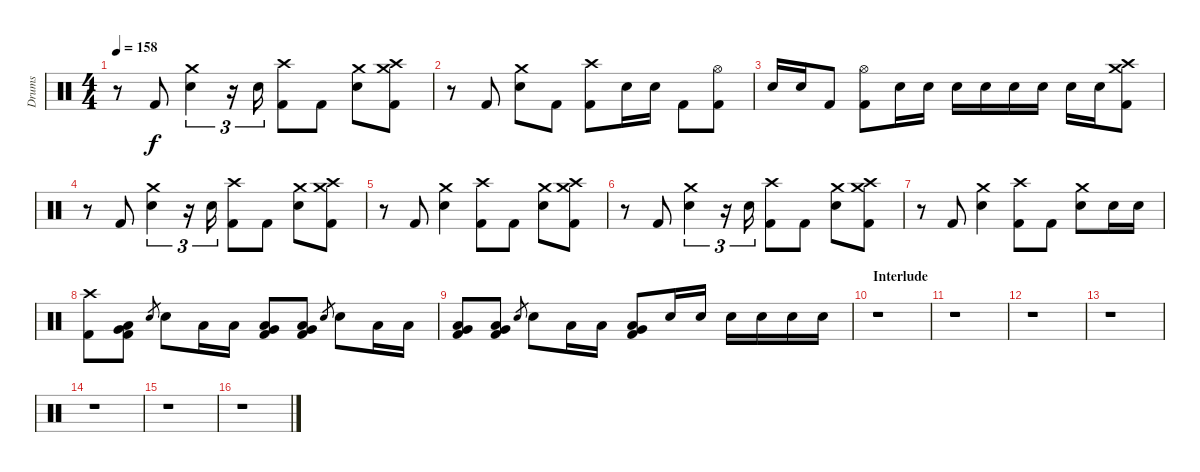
\track ("Drums" "Drums") {instrument percussion}
\staff {score}
\articulation defaults
\ts (4 4)
\tempo 158
\clef neutral
\ks c
r.8{dy f} "Kick (hit) 2".8 ("Crash medium (hit)" "Snare (hit) 2").4{tu (3 2)} r.16{tu (3 2)} "Snare (hit) 2".16{tu (3 2)} ("Crash high (hit)" "Kick (hit) 2").8 "Kick (hit) 2".8 ("Crash medium (hit)" "Snare (hit) 2").8 ("Crash high (hit)" "Crash medium (hit)" "Kick (hit) 2").8 |
r.8 "Kick (hit) 2".8 ("Crash medium (hit)" "Snare (hit) 2").8 "Kick (hit) 2".8 ("Crash high (hit)" "Kick (hit) 2").8 "Snare (hit) 2".16 "Snare (hit) 2".16 "Kick (hit) 2".8 ("Hi-Hat (open)" "Kick (hit) 2").8 |
"Snare (hit) 2".16 "Snare (hit) 2".16 "Kick (hit) 2".8 ("Hi-Hat (open)" "Kick (hit) 2").8 "Snare (hit) 2".16 "Snare (hit) 2".16 "Snare (hit) 2".16 "Snare (hit) 2".16 "Snare (hit) 2".16 "Snare (hit) 2".16 "Snare (hit) 2".16 "Snare (hit) 2".16 ("Crash high (hit)" "Crash medium (hit)" "Kick (hit) 2").8 |
r.8 "Kick (hit) 2".8 ("Crash medium (hit)" "Snare (hit) 2").4{tu (3 2)} r.16{tu (3 2)} "Snare (hit) 2".16{tu (3 2)} ("Crash high (hit)" "Kick (hit) 2").8 "Kick (hit) 2".8 ("Crash medium (hit)" "Snare (hit) 2").8 ("Crash high (hit)" "Crash medium (hit)" "Kick (hit) 2").8 |
r.8 "Kick (hit) 2".8 ("Crash medium (hit)" "Snare (hit) 2").4 ("Crash high (hit)" "Kick (hit) 2").8 "Kick (hit) 2".8 ("Crash medium (hit)" "Snare (hit) 2").8 ("Crash high (hit)" "Crash medium (hit)" "Kick (hit) 2").8 |
r.8 "Kick (hit) 2".8 ("Crash medium (hit)" "Snare (hit) 2").4{tu (3 2)} r.16{tu (3 2)} "Snare (hit) 2".16{tu (3 2)} ("Crash high (hit)" "Kick (hit) 2").8 "Kick (hit) 2".8 ("Crash medium (hit)" "Snare (hit) 2").8 ("Crash high (hit)" "Crash medium (hit)" "Kick (hit) 2").8 |
r.8 "Kick (hit) 2".8 ("Crash medium (hit)" "Snare (hit) 2").4 ("Crash high (hit)" "Kick (hit) 2").8 "Kick (hit) 2".8 ("Crash medium (hit)" "Snare (hit) 2").8 "Snare (hit) 2".16 "Snare (hit) 2".16 |
("Crash high (hit)" "Kick (hit) 2").8 ("Low Tom (hit)" "Very Low Tom (hit)" "Kick (hit) 2").8 "Snare (hit) 2".8{gr} "Snare (hit) 2".8 "Low Tom (hit)".16 "Low Tom (hit)".16 ("Low Tom (hit)" "Very Low Tom (hit)" "Kick (hit) 2").8 ("Low Tom (hit)" "Very Low Tom (hit)" "Kick (hit) 2").8 "Snare (hit) 2".8{gr} "Snare (hit) 2".8 "Low Tom (hit)".16 "Low Tom (hit)".16 |
("Low Tom (hit)" "Very Low Tom (hit)" "Kick (hit) 2").8 ("Low Tom (hit)" "Very Low Tom (hit)" "Kick (hit) 2").8 "Snare (hit) 2".8{gr} "Snare (hit) 2".8 "Low Tom (hit)".16 "Low Tom (hit)".16 ("Low Tom (hit)" "Very Low Tom (hit)" "Kick (hit) 2").8 "Snare (hit) 2".16 "Snare (hit) 2".16 "Snare (hit) 2".16 "Snare (hit) 2".16 "Snare (hit) 2".16 "Snare (hit) 2".16 |
\section ("" "Interlude")
r.1 |
r.1 |
r.1 |
r.1 |
r.1 |
r.1 |
r.1
